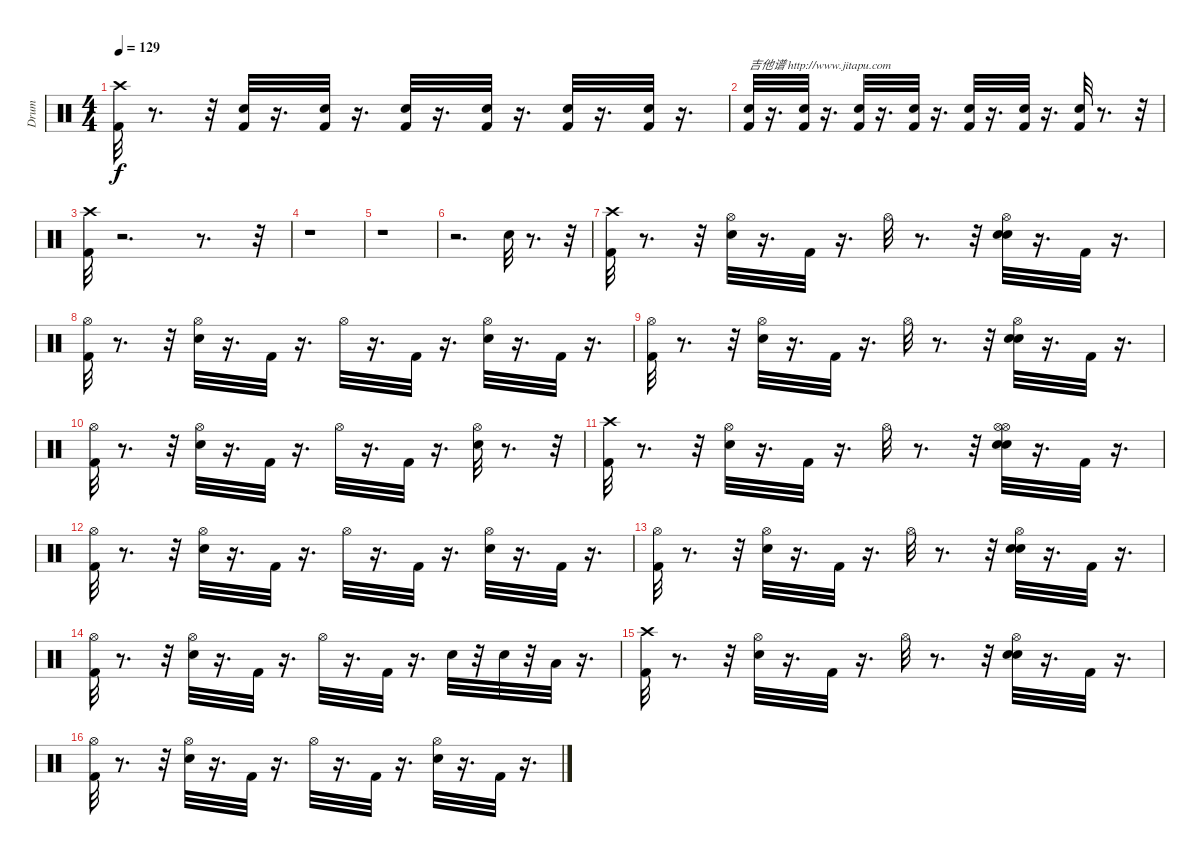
\track ("Drum" "Drum") {instrument percussion}
\staff {score}
\articulation defaults
\ts (4 4)
\tempo 129
\clef neutral
\ks c
("Kick (hit) 2" "Crash high (hit)").32{dy f} r.8{d} r.32 ("Kick (hit) 2" "Snare (hit) 2").32 r.16{d} ("Kick (hit) 2" "Snare (hit) 2").32 r.16{d} ("Kick (hit) 2" "Snare (hit) 2").32 r.16{d} ("Kick (hit) 2" "Snare (hit) 2").32 r.16{d} ("Kick (hit) 2" "Snare (hit) 2").32 r.16{d} ("Kick (hit) 2" "Snare (hit) 2").32 r.16{d} |
("Snare (hit) 2" "Kick (hit) 2").32{txt "吉他谱 http://www.jitapu.com"} r.16{d} ("Kick (hit) 2" "Snare (hit) 2").32 r.16{d} ("Kick (hit) 2" "Snare (hit) 2").32 r.16{d} ("Kick (hit) 2" "Snare (hit) 2").32 r.16{d} ("Snare (hit) 2" "Kick (hit) 2").32 r.16{d} ("Kick (hit) 2" "Snare (hit) 2").32 r.16{d} ("Kick (hit) 2" "Snare (hit) 2").32 r.8{d} r.32 |
("Kick (hit) 2" "Crash high (hit)").32 r.2{d} r.8{d} r.32 |
r.1 |
r.1 |
r.2{d} "Snare (hit) 2".32 r.8{d} r.32 |
("Kick (hit) 2" "Crash high (hit)").32 r.8{d} r.32 ("Snare (hit) 2" "Hi-Hat (open)").32 r.16{d} "Kick (hit) 2".32 r.16{d} "Hi-Hat (open)".32 r.8{d} r.32 ("Snare (hit) 2" "Hi-Hat (open)" "Snare (hit) 2").32 r.16{d} "Kick (hit) 2".32 r.16{d} |
("Kick (hit) 2" "Hi-Hat (open)").32 r.8{d} r.32 ("Snare (hit) 2" "Hi-Hat (open)").32 r.16{d} "Kick (hit) 2".32 r.16{d} "Hi-Hat (open)".32 r.16{d} "Kick (hit) 2".32 r.16{d} ("Hi-Hat (open)" "Snare (hit) 2").32 r.16{d} "Kick (hit) 2".32 r.16{d} |
("Hi-Hat (open)" "Kick (hit) 2").32 r.8{d} r.32 ("Snare (hit) 2" "Hi-Hat (open)").32 r.16{d} "Kick (hit) 2".32 r.16{d} "Hi-Hat (open)".32 r.8{d} r.32 ("Snare (hit) 2" "Hi-Hat (open)" "Snare (hit) 2").32 r.16{d} "Kick (hit) 2".32 r.16{d} |
("Hi-Hat (open)" "Kick (hit) 2").32 r.8{d} r.32 ("Snare (hit) 2" "Hi-Hat (open)").32 r.16{d} "Kick (hit) 2".32 r.16{d} "Hi-Hat (open)".32 r.16{d} "Kick (hit) 2".32 r.16{d} ("Snare (hit) 2" "Hi-Hat (open)").32 r.8{d} r.32 |
("Kick (hit) 2" "Crash high (hit)").32 r.8{d} r.32 ("Snare (hit) 2" "Hi-Hat (open)").32 r.16{d} "Kick (hit) 2".32 r.16{d} "Hi-Hat (open)".32 r.8{d} r.32 ("Snare (hit) 2" "Hi-Hat (open)" "Snare (hit) 2" "Hi-Hat (open)").32 r.16{d} "Kick (hit) 2".32 r.16{d} |
("Kick (hit) 2" "Hi-Hat (open)").32 r.8{d} r.32 ("Snare (hit) 2" "Hi-Hat (open)").32 r.16{d} "Kick (hit) 2".32 r.16{d} "Hi-Hat (open)".32 r.16{d} "Kick (hit) 2".32 r.16{d} ("Snare (hit) 2" "Hi-Hat (open)").32 r.16{d} "Kick (hit) 2".32 r.16{d} |
("Hi-Hat (open)" "Kick (hit) 2").32 r.8{d} r.32 ("Snare (hit) 2" "Hi-Hat (open)").32 r.16{d} "Kick (hit) 2".32 r.16{d} "Hi-Hat (open)".32 r.8{d} r.32 ("Snare (hit) 2" "Snare (hit) 2" "Hi-Hat (open)").32 r.16{d} "Kick (hit) 2".32 r.16{d} |
("Kick (hit) 2" "Hi-Hat (open)").32 r.8{d} r.32 ("Snare (hit) 2" "Hi-Hat (open)").32 r.16{d} "Kick (hit) 2".32 r.16{d} "Hi-Hat (open)".32 r.16{d} "Kick (hit) 2".32 r.16{d} "Snare (hit) 2".32 r.32 "Snare (hit) 2".32 r.32 "Low Floor Tom (hit)".32 r.16{d} |
("Kick (hit) 2" "Crash high (hit)").32 r.8{d} r.32 ("Snare (hit) 2" "Hi-Hat (open)").32 r.16{d} "Kick (hit) 2".32 r.16{d} "Hi-Hat (open)".32 r.8{d} r.32 ("Snare (hit) 2" "Snare (hit) 2" "Hi-Hat (open)").32 r.16{d} "Kick (hit) 2".32 r.16{d} |
("Kick (hit) 2" "Hi-Hat (open)").32 r.8{d} r.32 ("Snare (hit) 2" "Hi-Hat (open)").32 r.16{d} "Kick (hit) 2".32 r.16{d} "Hi-Hat (open)".32 r.16{d} "Kick (hit) 2".32 r.16{d} ("Hi-Hat (open)" "Snare (hit) 2").32 r.16{d} "Kick (hit) 2".32 r.16{d}
